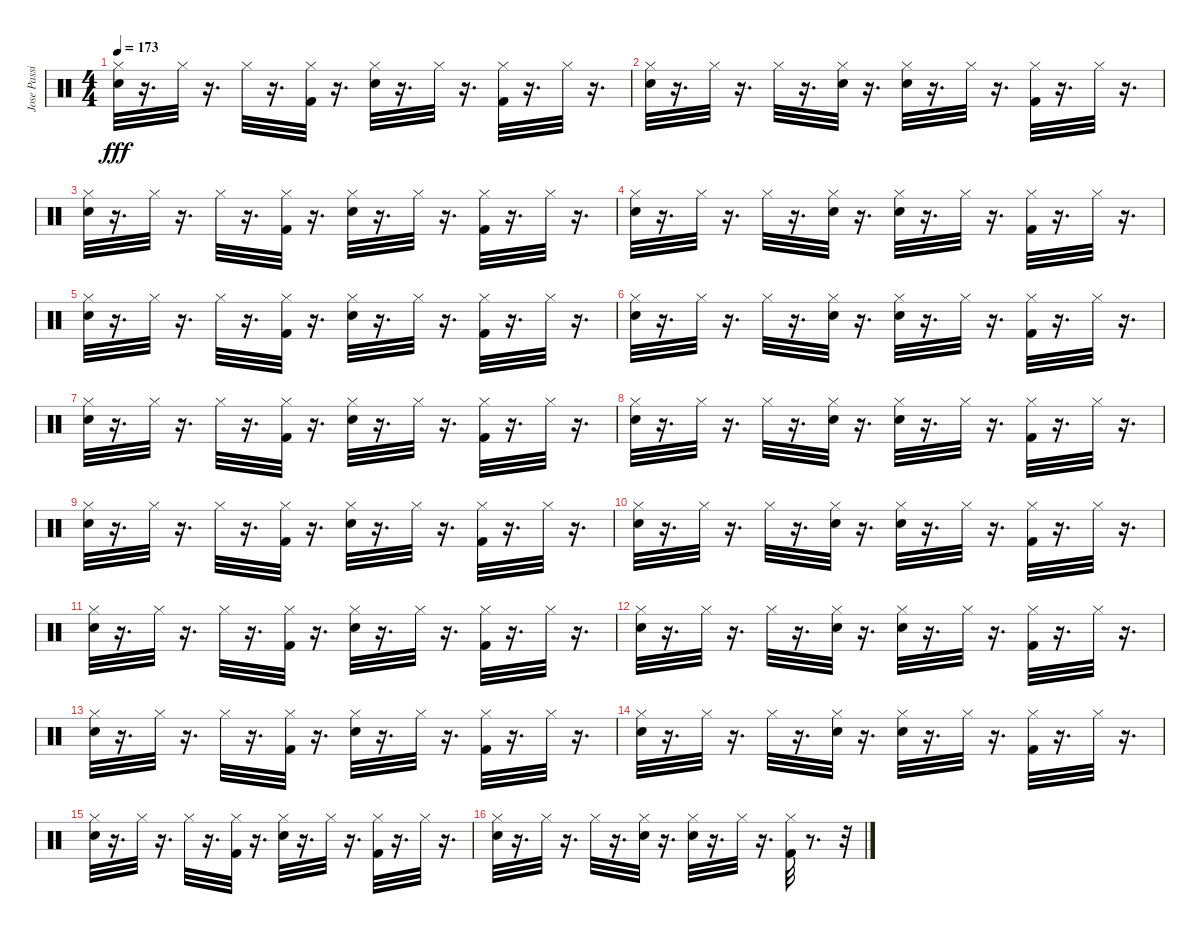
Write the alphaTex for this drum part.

\track ("Jose Passilas-Drums" "Jose Passi") {instrument percussion}
\staff {score}
\articulation defaults
\ts (4 4)
\tempo 173
\clef neutral
\ks c
("Electric Snare (hit)" "Hi-Hat (closed)").32{dy fff} r.16{d} "Hi-Hat (closed)".32 r.16{d} "Hi-Hat (closed)".32 r.16{d} ("Kick (hit) 2" "Hi-Hat (closed)").32 r.16{d} ("Electric Snare (hit)" "Hi-Hat (closed)").32 r.16{d} "Hi-Hat (closed)".32 r.16{d} ("Kick (hit) 2" "Hi-Hat (closed)").32 r.16{d} "Hi-Hat (closed)".32 r.16{d} |
("Electric Snare (hit)" "Hi-Hat (closed)").32 r.16{d} "Hi-Hat (closed)".32 r.16{d} "Hi-Hat (closed)".32 r.16{d} ("Electric Snare (hit)" "Hi-Hat (closed)").32 r.16{d} ("Electric Snare (hit)" "Hi-Hat (closed)").32 r.16{d} "Hi-Hat (closed)".32 r.16{d} ("Kick (hit) 2" "Hi-Hat (closed)").32 r.16{d} "Hi-Hat (closed)".32 r.16{d} |
("Hi-Hat (closed)" "Electric Snare (hit)").32 r.16{d} "Hi-Hat (closed)".32 r.16{d} "Hi-Hat (closed)".32 r.16{d} ("Hi-Hat (closed)" "Kick (hit) 2").32 r.16{d} ("Hi-Hat (closed)" "Electric Snare (hit)").32 r.16{d} "Hi-Hat (closed)".32 r.16{d} ("Hi-Hat (closed)" "Kick (hit) 2").32 r.16{d} "Hi-Hat (closed)".32 r.16{d} |
("Hi-Hat (closed)" "Electric Snare (hit)").32 r.16{d} "Hi-Hat (closed)".32 r.16{d} "Hi-Hat (closed)".32 r.16{d} ("Hi-Hat (closed)" "Electric Snare (hit)").32 r.16{d} ("Hi-Hat (closed)" "Electric Snare (hit)").32 r.16{d} "Hi-Hat (closed)".32 r.16{d} ("Hi-Hat (closed)" "Kick (hit) 2").32 r.16{d} "Hi-Hat (closed)".32 r.16{d} |
("Hi-Hat (closed)" "Electric Snare (hit)").32 r.16{d} "Hi-Hat (closed)".32 r.16{d} "Hi-Hat (closed)".32 r.16{d} ("Hi-Hat (closed)" "Kick (hit) 2").32 r.16{d} ("Hi-Hat (closed)" "Electric Snare (hit)").32 r.16{d} "Hi-Hat (closed)".32 r.16{d} ("Hi-Hat (closed)" "Kick (hit) 2").32 r.16{d} "Hi-Hat (closed)".32 r.16{d} |
("Hi-Hat (closed)" "Electric Snare (hit)").32 r.16{d} "Hi-Hat (closed)".32 r.16{d} "Hi-Hat (closed)".32 r.16{d} ("Hi-Hat (closed)" "Electric Snare (hit)").32 r.16{d} ("Hi-Hat (closed)" "Electric Snare (hit)").32 r.16{d} "Hi-Hat (closed)".32 r.16{d} ("Hi-Hat (closed)" "Kick (hit) 2").32 r.16{d} "Hi-Hat (closed)".32 r.16{d} |
("Electric Snare (hit)" "Hi-Hat (closed)").32 r.16{d} "Hi-Hat (closed)".32 r.16{d} "Hi-Hat (closed)".32 r.16{d} ("Kick (hit) 2" "Hi-Hat (closed)").32 r.16{d} ("Electric Snare (hit)" "Hi-Hat (closed)").32 r.16{d} "Hi-Hat (closed)".32 r.16{d} ("Kick (hit) 2" "Hi-Hat (closed)").32 r.16{d} "Hi-Hat (closed)".32 r.16{d} |
("Electric Snare (hit)" "Hi-Hat (closed)").32 r.16{d} "Hi-Hat (closed)".32 r.16{d} "Hi-Hat (closed)".32 r.16{d} ("Electric Snare (hit)" "Hi-Hat (closed)").32 r.16{d} ("Electric Snare (hit)" "Hi-Hat (closed)").32 r.16{d} "Hi-Hat (closed)".32 r.16{d} ("Hi-Hat (closed)" "Kick (hit) 2").32 r.16{d} "Hi-Hat (closed)".32 r.16{d} |
("Hi-Hat (closed)" "Electric Snare (hit)").32 r.16{d} "Hi-Hat (closed)".32 r.16{d} "Hi-Hat (closed)".32 r.16{d} ("Hi-Hat (closed)" "Kick (hit) 2").32 r.16{d} ("Hi-Hat (closed)" "Electric Snare (hit)").32 r.16{d} "Hi-Hat (closed)".32 r.16{d} ("Hi-Hat (closed)" "Kick (hit) 2").32 r.16{d} "Hi-Hat (closed)".32 r.16{d} |
("Hi-Hat (closed)" "Electric Snare (hit)").32 r.16{d} "Hi-Hat (closed)".32 r.16{d} "Hi-Hat (closed)".32 r.16{d} ("Hi-Hat (closed)" "Electric Snare (hit)").32 r.16{d} ("Hi-Hat (closed)" "Electric Snare (hit)").32 r.16{d} "Hi-Hat (closed)".32 r.16{d} ("Hi-Hat (closed)" "Kick (hit) 2").32 r.16{d} "Hi-Hat (closed)".32 r.16{d} |
("Electric Snare (hit)" "Hi-Hat (closed)").32 r.16{d} "Hi-Hat (closed)".32 r.16{d} "Hi-Hat (closed)".32 r.16{d} ("Kick (hit) 2" "Hi-Hat (closed)").32 r.16{d} ("Electric Snare (hit)" "Hi-Hat (closed)").32 r.16{d} "Hi-Hat (closed)".32 r.16{d} ("Kick (hit) 2" "Hi-Hat (closed)").32 r.16{d} "Hi-Hat (closed)".32 r.16{d} |
("Electric Snare (hit)" "Hi-Hat (closed)").32 r.16{d} "Hi-Hat (closed)".32 r.16{d} "Hi-Hat (closed)".32 r.16{d} ("Electric Snare (hit)" "Hi-Hat (closed)").32 r.16{d} ("Electric Snare (hit)" "Hi-Hat (closed)").32 r.16{d} "Hi-Hat (closed)".32 r.16{d} ("Kick (hit) 2" "Hi-Hat (closed)").32 r.16{d} "Hi-Hat (closed)".32 r.16{d} |
("Electric Snare (hit)" "Hi-Hat (closed)").32 r.16{d} "Hi-Hat (closed)".32 r.16{d} "Hi-Hat (closed)".32 r.16{d} ("Kick (hit) 2" "Hi-Hat (closed)").32 r.16{d} ("Electric Snare (hit)" "Hi-Hat (closed)").32 r.16{d} "Hi-Hat (closed)".32 r.16{d} ("Kick (hit) 2" "Hi-Hat (closed)").32 r.16{d} "Hi-Hat (closed)".32 r.16{d} |
("Electric Snare (hit)" "Hi-Hat (closed)").32 r.16{d} "Hi-Hat (closed)".32 r.16{d} "Hi-Hat (closed)".32 r.16{d} ("Electric Snare (hit)" "Hi-Hat (closed)").32 r.16{d} ("Electric Snare (hit)" "Hi-Hat (closed)").32 r.16{d} "Hi-Hat (closed)".32 r.16{d} ("Kick (hit) 2" "Hi-Hat (closed)").32 r.16{d} "Hi-Hat (closed)".32 r.16{d} |
("Hi-Hat (closed)" "Electric Snare (hit)").32 r.16{d} "Hi-Hat (closed)".32 r.16{d} "Hi-Hat (closed)".32 r.16{d} ("Hi-Hat (closed)" "Kick (hit) 2").32 r.16{d} ("Hi-Hat (closed)" "Electric Snare (hit)").32 r.16{d} "Hi-Hat (closed)".32 r.16{d} ("Hi-Hat (closed)" "Kick (hit) 2").32 r.16{d} "Hi-Hat (closed)".32 r.16{d} |
("Hi-Hat (closed)" "Electric Snare (hit)").32 r.16{d} "Hi-Hat (closed)".32 r.16{d} "Hi-Hat (closed)".32 r.16{d} ("Hi-Hat (closed)" "Electric Snare (hit)").32 r.16{d} ("Hi-Hat (closed)" "Electric Snare (hit)").32 r.16{d} "Hi-Hat (closed)".32 r.16{d} ("Kick (hit) 2" "Hi-Hat (closed)").32 r.8{d} r.32
